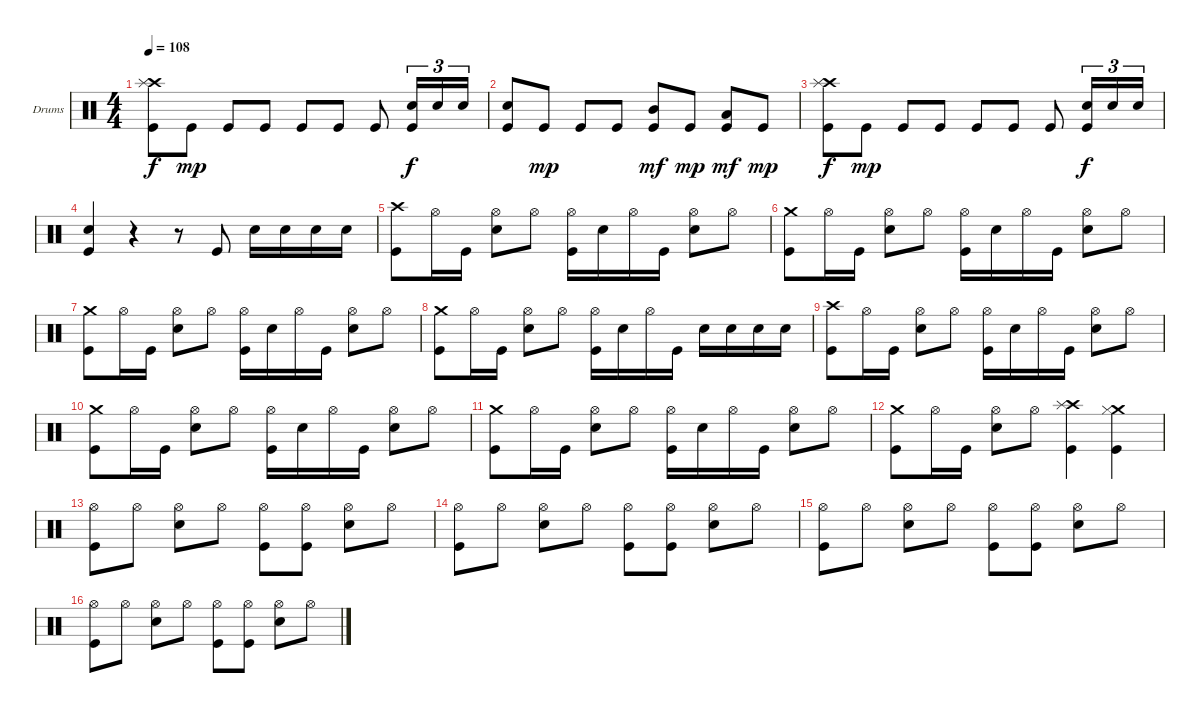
\defaultSystemsLayout 4
\bracketExtendMode groupsimilarinstruments
\firstSystemTrackNameOrientation horizontal
\otherSystemsTrackNameOrientation horizontal
\track ("Drumkit" "Drums") {instrument percussion}
\staff {score}
\articulation defaults
\ts (4 4)
\tempo 108
\clef neutral
\ks c
("Kick (hit)" "Crash high (hit)" "Splash (hit)").8{dy f} "Kick (hit)".8{dy mp} "Kick (hit)".8 "Kick (hit)".8 "Kick (hit)".8 "Kick (hit)".8 "Kick (hit)".8 ("Kick (hit)" "Snare (hit) 2").16{tu (3 2) dy f} "Snare (hit) 2".16{tu (3 2)} "Snare (hit) 2".16{tu (3 2)} |
("Snare (hit) 2" "Kick (hit)").8 "Kick (hit)".8{dy mp} "Kick (hit)".8 "Kick (hit)".8 ("Kick (hit)" "Mid Tom (hit)").8{dy mf} "Kick (hit)".8{dy mp} ("Kick (hit)" "Low Tom (hit)").8{dy mf} "Kick (hit)".8{dy mp} |
("Kick (hit)" "Crash high (hit)" "Splash (hit)").8{dy f} "Kick (hit)".8{dy mp} "Kick (hit)".8 "Kick (hit)".8 "Kick (hit)".8 "Kick (hit)".8 "Kick (hit)".8 ("Kick (hit)" "Snare (hit) 2").16{tu (3 2) dy f} "Snare (hit) 2".16{tu (3 2)} "Snare (hit) 2".16{tu (3 2)} |
("Kick (hit)" "Snare (hit) 2").4 r.4 r.8 "Kick (hit)".8 "Snare (hit) 2".16 "Snare (hit) 2".16 "Snare (hit) 2".16 "Snare (hit) 2".16 |
("Kick (hit)" "Crash high (hit)").8 "Hi-Hat (open)".16 "Kick (hit)".16 ("Hi-Hat (open)" "Snare (hit) 2").8 "Hi-Hat (open)".8 ("Hi-Hat (open)" "Kick (hit)").16 "Snare (hit) 2".16 "Hi-Hat (open)".16 "Kick (hit)".16 ("Hi-Hat (open)" "Snare (hit) 2").8 "Hi-Hat (open)".8 |
("Kick (hit)" "Crash medium (hit)").8 "Hi-Hat (open)".16 "Kick (hit)".16 ("Hi-Hat (open)" "Snare (hit) 2").8 "Hi-Hat (open)".8 ("Hi-Hat (open)" "Kick (hit)").16 "Snare (hit) 2".16 "Hi-Hat (open)".16 "Kick (hit)".16 ("Hi-Hat (open)" "Snare (hit) 2").8 "Hi-Hat (open)".8 |
("Kick (hit)" "Crash medium (hit)").8 "Hi-Hat (open)".16 "Kick (hit)".16 ("Hi-Hat (open)" "Snare (hit) 2").8 "Hi-Hat (open)".8 ("Hi-Hat (open)" "Kick (hit)").16 "Snare (hit) 2".16 "Hi-Hat (open)".16 "Kick (hit)".16 ("Hi-Hat (open)" "Snare (hit) 2").8 "Hi-Hat (open)".8 |
("Kick (hit)" "Crash medium (hit)").8 "Hi-Hat (open)".16 "Kick (hit)".16 ("Hi-Hat (open)" "Snare (hit) 2").8 "Hi-Hat (open)".8 ("Hi-Hat (open)" "Kick (hit)").16 "Snare (hit) 2".16 "Hi-Hat (open)".16 "Kick (hit)".16 "Snare (hit) 2".16 "Snare (hit) 2".16 "Snare (hit) 2".16 "Snare (hit) 2".16 |
("Kick (hit)" "Crash high (hit)").8 "Hi-Hat (open)".16 "Kick (hit)".16 ("Hi-Hat (open)" "Snare (hit) 2").8 "Hi-Hat (open)".8 ("Hi-Hat (open)" "Kick (hit)").16 "Snare (hit) 2".16 "Hi-Hat (open)".16 "Kick (hit)".16 ("Hi-Hat (open)" "Snare (hit) 2").8 "Hi-Hat (open)".8 |
("Kick (hit)" "Crash medium (hit)").8 "Hi-Hat (open)".16 "Kick (hit)".16 ("Hi-Hat (open)" "Snare (hit) 2").8 "Hi-Hat (open)".8 ("Hi-Hat (open)" "Kick (hit)").16 "Snare (hit) 2".16 "Hi-Hat (open)".16 "Kick (hit)".16 ("Hi-Hat (open)" "Snare (hit) 2").8 "Hi-Hat (open)".8 |
("Kick (hit)" "Crash medium (hit)").8 "Hi-Hat (open)".16 "Kick (hit)".16 ("Hi-Hat (open)" "Snare (hit) 2").8 "Hi-Hat (open)".8 ("Hi-Hat (open)" "Kick (hit)").16 "Snare (hit) 2".16 "Hi-Hat (open)".16 "Kick (hit)".16 ("Hi-Hat (open)" "Snare (hit) 2").8 "Hi-Hat (open)".8 |
("Kick (hit)" "Crash medium (hit)").8 "Hi-Hat (open)".16 "Kick (hit)".16 ("Hi-Hat (open)" "Snare (hit) 2").8 "Hi-Hat (open)".8 ("Kick (hit)" "Crash high (hit)" "Splash (hit)").4 ("Crash medium (hit)" "Hi-Hat (closed)" "Kick (hit)").4 |
("Kick (hit)" "Hi-Hat (open)").8 "Hi-Hat (open)".8 ("Snare (hit) 2" "Hi-Hat (open)").8 "Hi-Hat (open)".8 ("Hi-Hat (open)" "Kick (hit)").8 ("Hi-Hat (open)" "Kick (hit)").8 ("Hi-Hat (open)" "Snare (hit) 2").8 "Hi-Hat (open)".8 |
("Kick (hit)" "Hi-Hat (open)").8 "Hi-Hat (open)".8 ("Snare (hit) 2" "Hi-Hat (open)").8 "Hi-Hat (open)".8 ("Hi-Hat (open)" "Kick (hit)").8 ("Hi-Hat (open)" "Kick (hit)").8 ("Hi-Hat (open)" "Snare (hit) 2").8 "Hi-Hat (open)".8 |
("Kick (hit)" "Hi-Hat (open)").8 "Hi-Hat (open)".8 ("Snare (hit) 2" "Hi-Hat (open)").8 "Hi-Hat (open)".8 ("Hi-Hat (open)" "Kick (hit)").8 ("Hi-Hat (open)" "Kick (hit)").8 ("Hi-Hat (open)" "Snare (hit) 2").8 "Hi-Hat (open)".8 |
("Kick (hit)" "Hi-Hat (open)").8 "Hi-Hat (open)".8 ("Snare (hit) 2" "Hi-Hat (open)").8 "Hi-Hat (open)".8 ("Hi-Hat (open)" "Kick (hit)").8 ("Hi-Hat (open)" "Kick (hit)").8 ("Hi-Hat (open)" "Snare (hit) 2").8 "Hi-Hat (open)".8
